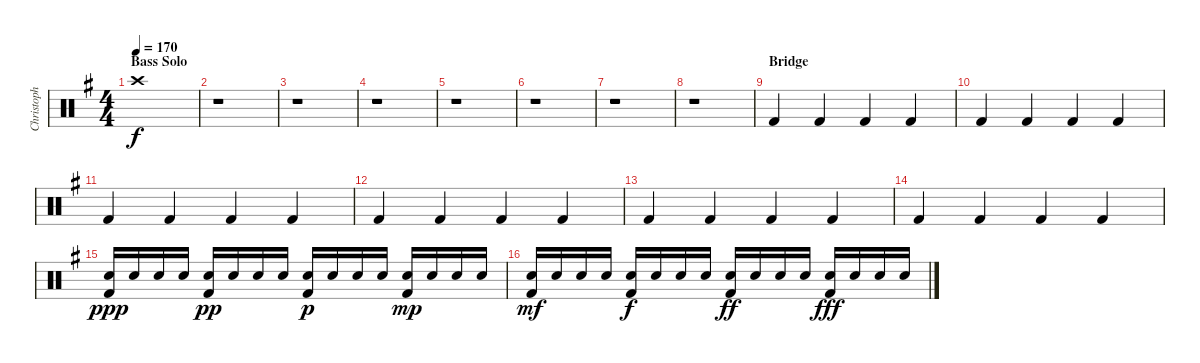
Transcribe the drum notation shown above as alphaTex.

\track ("Christoph Doom Schneider - Drums" "Christoph ") {instrument percussion}
\staff {score}
\articulation defaults
\ts (4 4)
\section ("" "Bass Solo")
\tempo 170
\clef neutral
\ks g "Crash high (hit)".1{dy f}
|
r.1 |
r.1 |
r.1 |
r.1 |
r.1 |
r.1 |
r.1 |
\section ("" "Bridge")
"Kick (hit) 2".4 "Kick (hit) 2".4 "Kick (hit) 2".4 "Kick (hit) 2".4 |
"Kick (hit) 2".4 "Kick (hit) 2".4 "Kick (hit) 2".4 "Kick (hit) 2".4 |
"Kick (hit) 2".4 "Kick (hit) 2".4 "Kick (hit) 2".4 "Kick (hit) 2".4 |
"Kick (hit) 2".4 "Kick (hit) 2".4 "Kick (hit) 2".4 "Kick (hit) 2".4 |
"Kick (hit) 2".4 "Kick (hit) 2".4 "Kick (hit) 2".4 "Kick (hit) 2".4 |
"Kick (hit) 2".4 "Kick (hit) 2".4 "Kick (hit) 2".4 "Kick (hit) 2".4 |
("Electric Snare (hit)" "Kick (hit) 2").16{dy ppp} "Electric Snare (hit)".16 "Electric Snare (hit)".16 "Electric Snare (hit)".16 ("Electric Snare (hit)" "Kick (hit) 2").16{dy pp} "Electric Snare (hit)".16 "Electric Snare (hit)".16 "Electric Snare (hit)".16 ("Electric Snare (hit)" "Kick (hit) 2").16{dy p} "Electric Snare (hit)".16 "Electric Snare (hit)".16 "Electric Snare (hit)".16 ("Electric Snare (hit)" "Kick (hit) 2").16{dy mp} "Electric Snare (hit)".16 "Electric Snare (hit)".16 "Electric Snare (hit)".16 |
("Electric Snare (hit)" "Kick (hit) 2").16{dy mf} "Electric Snare (hit)".16 "Electric Snare (hit)".16 "Electric Snare (hit)".16 ("Electric Snare (hit)" "Kick (hit) 2").16{dy f} "Electric Snare (hit)".16 "Electric Snare (hit)".16 "Electric Snare (hit)".16 ("Electric Snare (hit)" "Kick (hit) 2").16{dy ff} "Electric Snare (hit)".16 "Electric Snare (hit)".16 "Electric Snare (hit)".16 ("Electric Snare (hit)" "Kick (hit) 2").16{dy fff} "Electric Snare (hit)".16 "Electric Snare (hit)".16 "Electric Snare (hit)".16
